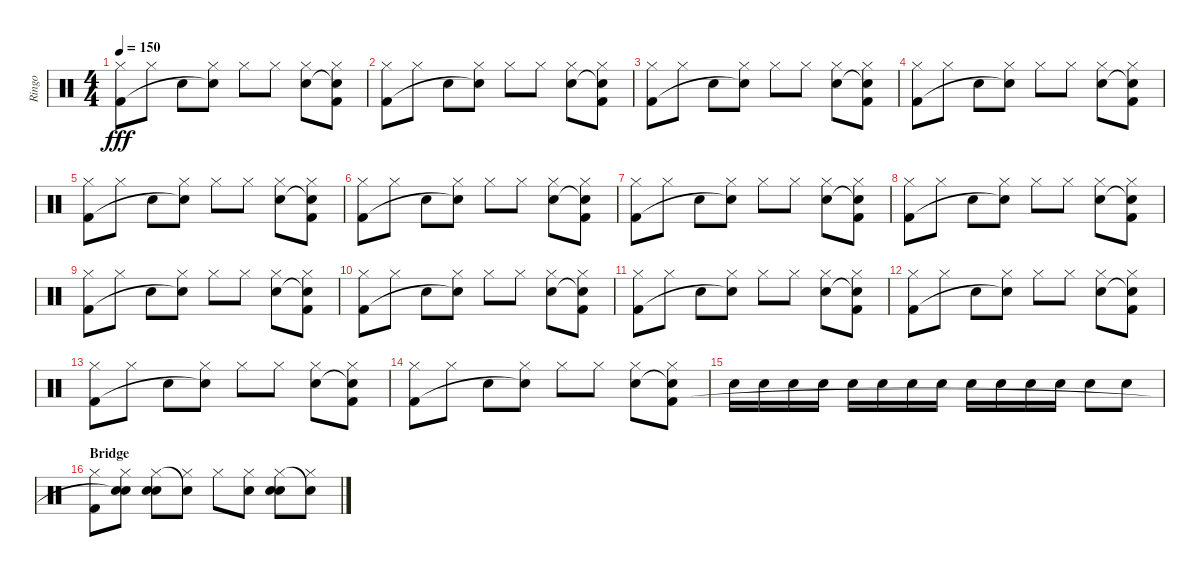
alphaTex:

\track ("Ringo" "Ringo") {instrument percussion}
\staff {score}
\articulation defaults
\ts (4 4)
\tempo 150
\clef neutral
\ks c
("Hi-Hat (closed)" "Kick (hit) 2").8{dy fff} "Hi-Hat (closed)".8 "Snare (hit) 2".8 ("Hi-Hat (closed)" "Snare (hit)"{t}).8 "Hi-Hat (closed)".8 "Hi-Hat (closed)".8 ("Hi-Hat (closed)" "Snare (hit) 2").8 ("Hi-Hat (closed)" "Snare (hit)"{t} "Kick (hit) 2").8 |
("Hi-Hat (closed)" "Kick (hit) 2").8 "Hi-Hat (closed)".8 "Snare (hit) 2".8 ("Hi-Hat (closed)" "Snare (hit)"{t}).8 "Hi-Hat (closed)".8 "Hi-Hat (closed)".8 ("Hi-Hat (closed)" "Snare (hit) 2").8 ("Hi-Hat (closed)" "Snare (hit)"{t} "Kick (hit) 2").8 |
("Hi-Hat (closed)" "Kick (hit) 2").8 "Hi-Hat (closed)".8 "Snare (hit) 2".8 ("Hi-Hat (closed)" "Snare (hit)"{t}).8 "Hi-Hat (closed)".8 "Hi-Hat (closed)".8 ("Hi-Hat (closed)" "Snare (hit) 2").8 ("Hi-Hat (closed)" "Snare (hit)"{t} "Kick (hit) 2").8 |
("Hi-Hat (closed)" "Kick (hit) 2").8 "Hi-Hat (closed)".8 "Snare (hit) 2".8 ("Hi-Hat (closed)" "Snare (hit)"{t}).8 "Hi-Hat (closed)".8 "Hi-Hat (closed)".8 ("Hi-Hat (closed)" "Snare (hit) 2").8 ("Hi-Hat (closed)" "Snare (hit)"{t} "Kick (hit) 2").8 |
("Hi-Hat (closed)" "Kick (hit) 2").8 "Hi-Hat (closed)".8 "Snare (hit) 2".8 ("Hi-Hat (closed)" "Snare (hit)"{t}).8 "Hi-Hat (closed)".8 "Hi-Hat (closed)".8 ("Hi-Hat (closed)" "Snare (hit) 2").8 ("Hi-Hat (closed)" "Snare (hit)"{t} "Kick (hit) 2").8 |
("Hi-Hat (closed)" "Kick (hit) 2").8 "Hi-Hat (closed)".8 "Snare (hit) 2".8 ("Hi-Hat (closed)" "Snare (hit)"{t}).8 "Hi-Hat (closed)".8 "Hi-Hat (closed)".8 ("Hi-Hat (closed)" "Snare (hit) 2").8 ("Hi-Hat (closed)" "Snare (hit)"{t} "Kick (hit) 2").8 |
("Hi-Hat (closed)" "Kick (hit) 2").8 "Hi-Hat (closed)".8 "Snare (hit) 2".8 ("Hi-Hat (closed)" "Snare (hit)"{t}).8 "Hi-Hat (closed)".8 "Hi-Hat (closed)".8 ("Hi-Hat (closed)" "Snare (hit) 2").8 ("Hi-Hat (closed)" "Snare (hit)"{t} "Kick (hit) 2").8 |
("Hi-Hat (closed)" "Kick (hit) 2").8 "Hi-Hat (closed)".8 "Snare (hit) 2".8 ("Hi-Hat (closed)" "Snare (hit)"{t}).8 "Hi-Hat (closed)".8 "Hi-Hat (closed)".8 ("Hi-Hat (closed)" "Snare (hit) 2").8 ("Hi-Hat (closed)" "Snare (hit)"{t} "Kick (hit) 2").8 |
("Hi-Hat (closed)" "Kick (hit) 2").8 "Hi-Hat (closed)".8 "Snare (hit) 2".8 ("Hi-Hat (closed)" "Snare (hit)"{t}).8 "Hi-Hat (closed)".8 "Hi-Hat (closed)".8 ("Hi-Hat (closed)" "Snare (hit) 2").8 ("Hi-Hat (closed)" "Snare (hit)"{t} "Kick (hit) 2").8 |
("Hi-Hat (closed)" "Kick (hit) 2").8 "Hi-Hat (closed)".8 "Snare (hit) 2".8 ("Hi-Hat (closed)" "Snare (hit)"{t}).8 "Hi-Hat (closed)".8 "Hi-Hat (closed)".8 ("Hi-Hat (closed)" "Snare (hit) 2").8 ("Hi-Hat (closed)" "Snare (hit)"{t} "Kick (hit) 2").8 |
("Hi-Hat (closed)" "Kick (hit) 2").8 "Hi-Hat (closed)".8 "Snare (hit) 2".8 ("Hi-Hat (closed)" "Snare (hit)"{t}).8 "Hi-Hat (closed)".8 "Hi-Hat (closed)".8 ("Hi-Hat (closed)" "Snare (hit) 2").8 ("Hi-Hat (closed)" "Snare (hit)"{t} "Kick (hit) 2").8 |
("Hi-Hat (closed)" "Kick (hit) 2").8 "Hi-Hat (closed)".8 "Snare (hit) 2".8 ("Hi-Hat (closed)" "Snare (hit)"{t}).8 "Hi-Hat (closed)".8 "Hi-Hat (closed)".8 ("Hi-Hat (closed)" "Snare (hit) 2").8 ("Hi-Hat (closed)" "Snare (hit)"{t} "Kick (hit) 2").8 |
("Hi-Hat (closed)" "Kick (hit) 2").8 "Hi-Hat (closed)".8 "Snare (hit) 2".8 ("Hi-Hat (closed)" "Snare (hit)"{t}).8 "Hi-Hat (closed)".8 "Hi-Hat (closed)".8 ("Hi-Hat (closed)" "Snare (hit) 2").8 ("Hi-Hat (closed)" "Snare (hit)"{t} "Kick (hit) 2").8 |
("Hi-Hat (closed)" "Kick (hit) 2").8 "Hi-Hat (closed)".8 "Snare (hit) 2".8 ("Hi-Hat (closed)" "Snare (hit)"{t}).8 "Hi-Hat (closed)".8 "Hi-Hat (closed)".8 ("Hi-Hat (closed)" "Snare (hit) 2").8 ("Hi-Hat (closed)" "Snare (hit)"{t} "Kick (hit) 2").8 |
"Snare (hit) 2".16 "Snare (hit) 2".16 "Snare (hit) 2".16 "Snare (hit) 2".16 "Snare (hit) 2".16 "Snare (hit) 2".16 "Snare (hit) 2".16 "Snare (hit) 2".16 "Snare (hit) 2".16 "Snare (hit) 2".16 "Snare (hit) 2".16 "Snare (hit) 2".16 "Snare (hit) 2".8 "Snare (hit) 2".8 |
\section ("" "Bridge")
("Hi-Hat (closed)" "Kick (hit) 2").8 ("Hand Clap (hit)" "Hi-Hat (closed)" "Snare (hit)"{t}).8 ("Hand Clap (hit)" "Hi-Hat (closed)" "Snare (hit) 2").8 ("Hi-Hat (closed)" "Snare (hit)"{t}).8 "Hi-Hat (closed)".8 ("Hand Clap (hit)" "Hi-Hat (closed)").8 ("Hand Clap (hit)" "Hi-Hat (closed)" "Snare (hit) 2").8 ("Hi-Hat (closed)" "Snare (hit)"{t}).8
